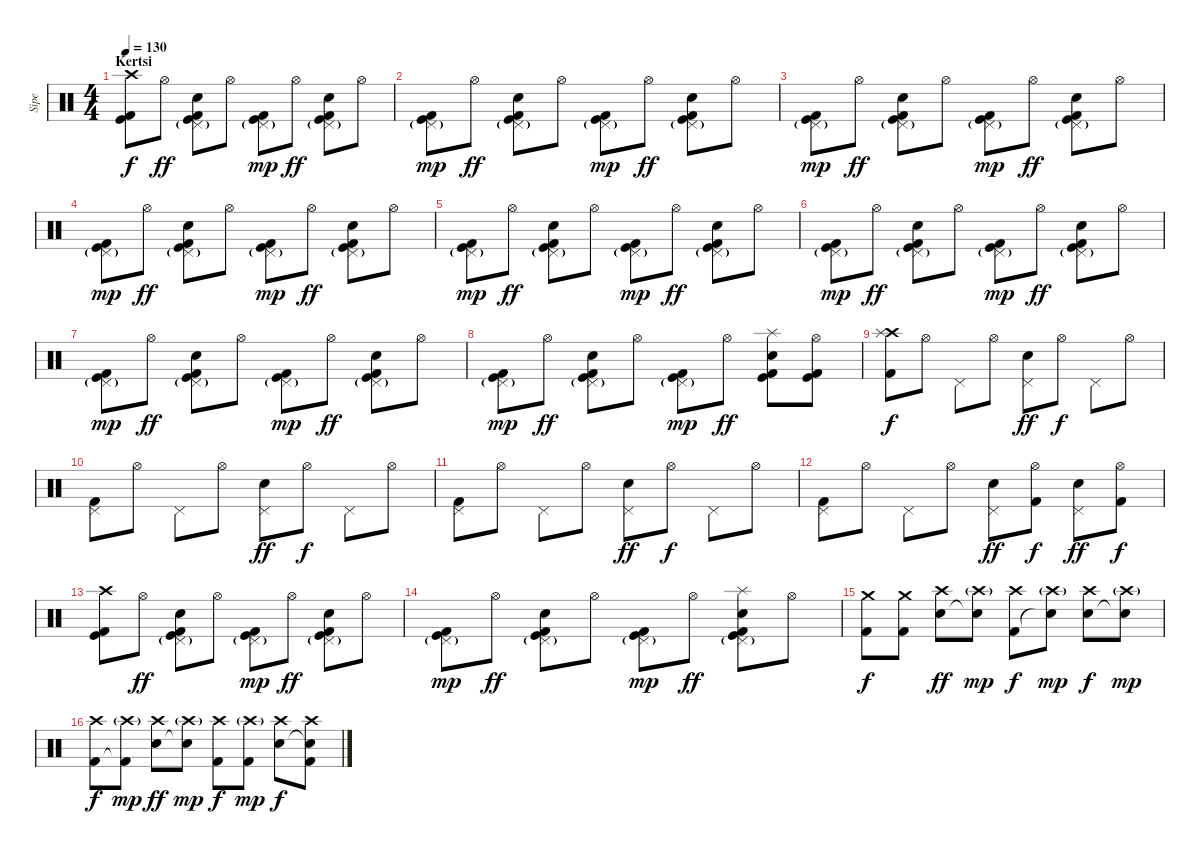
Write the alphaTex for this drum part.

\track ("Sipe" "Sipe") {instrument percussion}
\staff {score}
\articulation defaults
\ts (4 4)
\section ("" "Kertsi")
\tempo 130
\clef neutral
\ks c
("Crash high (hit)" "Kick (hit)" "Kick (hit) 2").8{dy f} "Hi-Hat (open)".8{dy ff} ("Pedal Hi-Hat (hit)"{g} "Electric Snare (hit)" "Kick (hit)" "Kick (hit) 2").8 "Hi-Hat (open)".8 ("Pedal Hi-Hat (hit)"{g} "Kick (hit)" "Kick (hit) 2").8{dy mp} "Hi-Hat (open)".8{dy ff} ("Pedal Hi-Hat (hit)"{g} "Electric Snare (hit)" "Kick (hit)" "Kick (hit) 2").8 "Hi-Hat (open)".8 |
("Pedal Hi-Hat (hit)"{g} "Kick (hit)" "Kick (hit) 2").8{dy mp} "Hi-Hat (open)".8{dy ff} ("Pedal Hi-Hat (hit)"{g} "Electric Snare (hit)" "Kick (hit)" "Kick (hit) 2").8 "Hi-Hat (open)".8 ("Pedal Hi-Hat (hit)"{g} "Kick (hit)" "Kick (hit) 2").8{dy mp} "Hi-Hat (open)".8{dy ff} ("Pedal Hi-Hat (hit)"{g} "Electric Snare (hit)" "Kick (hit)" "Kick (hit) 2").8 "Hi-Hat (open)".8 |
("Pedal Hi-Hat (hit)"{g} "Kick (hit)" "Kick (hit) 2").8{dy mp} "Hi-Hat (open)".8{dy ff} ("Pedal Hi-Hat (hit)"{g} "Electric Snare (hit)" "Kick (hit)" "Kick (hit) 2").8 "Hi-Hat (open)".8 ("Pedal Hi-Hat (hit)"{g} "Kick (hit)" "Kick (hit) 2").8{dy mp} "Hi-Hat (open)".8{dy ff} ("Pedal Hi-Hat (hit)"{g} "Electric Snare (hit)" "Kick (hit)" "Kick (hit) 2").8 "Hi-Hat (open)".8 |
("Pedal Hi-Hat (hit)"{g} "Kick (hit)" "Kick (hit) 2").8{dy mp} "Hi-Hat (open)".8{dy ff} ("Pedal Hi-Hat (hit)"{g} "Electric Snare (hit)" "Kick (hit)" "Kick (hit) 2").8 "Hi-Hat (open)".8 ("Pedal Hi-Hat (hit)"{g} "Kick (hit)" "Kick (hit) 2").8{dy mp} "Hi-Hat (open)".8{dy ff} ("Pedal Hi-Hat (hit)"{g} "Electric Snare (hit)" "Kick (hit)" "Kick (hit) 2").8 "Hi-Hat (open)".8 |
("Pedal Hi-Hat (hit)"{g} "Kick (hit)" "Kick (hit) 2").8{dy mp} "Hi-Hat (open)".8{dy ff} ("Pedal Hi-Hat (hit)"{g} "Electric Snare (hit)" "Kick (hit)" "Kick (hit) 2").8 "Hi-Hat (open)".8 ("Pedal Hi-Hat (hit)"{g} "Kick (hit)" "Kick (hit) 2").8{dy mp} "Hi-Hat (open)".8{dy ff} ("Pedal Hi-Hat (hit)"{g} "Electric Snare (hit)" "Kick (hit)" "Kick (hit) 2").8 "Hi-Hat (open)".8 |
("Pedal Hi-Hat (hit)"{g} "Kick (hit)" "Kick (hit) 2").8{dy mp} "Hi-Hat (open)".8{dy ff} ("Pedal Hi-Hat (hit)"{g} "Electric Snare (hit)" "Kick (hit)" "Kick (hit) 2").8 "Hi-Hat (open)".8 ("Pedal Hi-Hat (hit)"{g} "Kick (hit)" "Kick (hit) 2").8{dy mp} "Hi-Hat (open)".8{dy ff} ("Pedal Hi-Hat (hit)"{g} "Electric Snare (hit)" "Kick (hit)" "Kick (hit) 2").8 "Hi-Hat (open)".8 |
("Pedal Hi-Hat (hit)"{g} "Kick (hit)" "Kick (hit) 2").8{dy mp} "Hi-Hat (open)".8{dy ff} ("Pedal Hi-Hat (hit)"{g} "Electric Snare (hit)" "Kick (hit)" "Kick (hit) 2").8 "Hi-Hat (open)".8 ("Pedal Hi-Hat (hit)"{g} "Kick (hit)" "Kick (hit) 2").8{dy mp} "Hi-Hat (open)".8{dy ff} ("Pedal Hi-Hat (hit)"{g} "Electric Snare (hit)" "Kick (hit)" "Kick (hit) 2").8 "Hi-Hat (open)".8 |
("Pedal Hi-Hat (hit)"{g} "Kick (hit)" "Kick (hit) 2").8{dy mp} "Hi-Hat (open)".8{dy ff} ("Pedal Hi-Hat (hit)"{g} "Electric Snare (hit)" "Kick (hit)" "Kick (hit) 2").8 "Hi-Hat (open)".8 ("Pedal Hi-Hat (hit)"{g} "Kick (hit)" "Kick (hit) 2").8{dy mp} "Hi-Hat (open)".8{dy ff} ("Splash (hit)" "Electric Snare (hit)" "Kick (hit)" "Kick (hit) 2").8 ("Hi-Hat (open)" "Kick (hit)" "Kick (hit) 2").8 |
("Crash high (hit)" "Splash (hit)" "Kick (hit) 2").8{dy f} "Hi-Hat (open)".8 "Pedal Hi-Hat (hit)".8 "Hi-Hat (open)".8 ("Pedal Hi-Hat (hit)" "Electric Snare (hit)").8{dy ff} "Hi-Hat (open)".8{dy f} "Pedal Hi-Hat (hit)".8 "Hi-Hat (open)".8 |
("Pedal Hi-Hat (hit)" "Kick (hit) 2").8 "Hi-Hat (open)".8 "Pedal Hi-Hat (hit)".8 "Hi-Hat (open)".8 ("Pedal Hi-Hat (hit)" "Electric Snare (hit)").8{dy ff} "Hi-Hat (open)".8{dy f} "Pedal Hi-Hat (hit)".8 "Hi-Hat (open)".8 |
("Pedal Hi-Hat (hit)" "Kick (hit) 2").8 "Hi-Hat (open)".8 "Pedal Hi-Hat (hit)".8 "Hi-Hat (open)".8 ("Pedal Hi-Hat (hit)" "Electric Snare (hit)").8{dy ff} "Hi-Hat (open)".8{dy f} "Pedal Hi-Hat (hit)".8 "Hi-Hat (open)".8 |
("Pedal Hi-Hat (hit)" "Kick (hit) 2").8 "Hi-Hat (open)".8 "Pedal Hi-Hat (hit)".8 "Hi-Hat (open)".8 ("Pedal Hi-Hat (hit)" "Electric Snare (hit)").8{dy ff} ("Hi-Hat (open)" "Kick (hit) 2").8{dy f} ("Pedal Hi-Hat (hit)" "Electric Snare (hit)").8{dy ff} ("Hi-Hat (open)" "Kick (hit) 2").8{dy f} |
("Crash high (hit)" "Kick (hit)" "Kick (hit) 2").8 "Hi-Hat (open)".8{dy ff} ("Pedal Hi-Hat (hit)"{g} "Electric Snare (hit)" "Kick (hit)" "Kick (hit) 2").8 "Hi-Hat (open)".8 ("Pedal Hi-Hat (hit)"{g} "Kick (hit)" "Kick (hit) 2").8{dy mp} "Hi-Hat (open)".8{dy ff} ("Pedal Hi-Hat (hit)"{g} "Electric Snare (hit)" "Kick (hit)" "Kick (hit) 2").8 "Hi-Hat (open)".8 |
("Pedal Hi-Hat (hit)"{g} "Kick (hit)" "Kick (hit) 2").8{dy mp} "Hi-Hat (open)".8{dy ff} ("Pedal Hi-Hat (hit)"{g} "Electric Snare (hit)" "Kick (hit)" "Kick (hit) 2").8 "Hi-Hat (open)".8 ("Pedal Hi-Hat (hit)"{g} "Kick (hit)" "Kick (hit) 2").8{dy mp} "Hi-Hat (open)".8{dy ff} ("Splash (hit)" "Pedal Hi-Hat (hit)"{g} "Electric Snare (hit)" "Kick (hit)" "Kick (hit) 2").8 "Hi-Hat (open)".8 |
("Crash medium (hit)" "Kick (hit) 2").8{dy f} ("Crash medium (hit)" "Kick (hit) 2").8 ("Crash high (hit)" "Electric Snare (hit)").8{dy ff} ("Crash high (hit)"{g} "Snare (hit)"{t}).8{dy mp} ("Crash high (hit)" "Kick (hit) 2").8{dy f} ("Crash high (hit)"{g} "Snare (hit)"{t}).8{dy mp} ("Crash high (hit)" "Electric Snare (hit)").8{dy f} ("Crash high (hit)"{g} "Snare (hit)"{t}).8{dy mp} |
("Crash high (hit)" "Kick (hit) 2").8{dy f} ("Crash high (hit)"{g} "Kick (hit) 2"{t}).8{dy mp} ("Crash high (hit)" "Electric Snare (hit)").8{dy ff} ("Crash high (hit)"{g} "Snare (hit)"{t}).8{dy mp} ("Crash high (hit)" "Kick (hit) 2").8{dy f} ("Crash high (hit)"{g} "Kick (hit) 2").8{dy mp} ("Crash high (hit)" "Electric Snare (hit)").8{dy f} ("Crash high (hit)" "Snare (hit)"{t} "Kick (hit) 2").8
